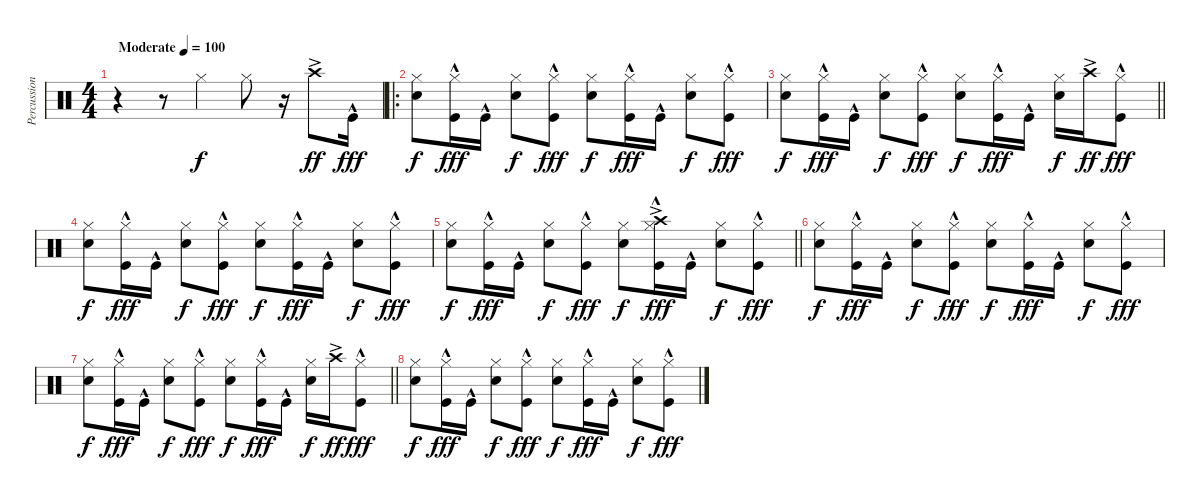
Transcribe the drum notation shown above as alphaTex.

\track ("Percussion" "Percussion") {instrument percussion}
\staff {score}
\articulation defaults
\ts (4 4)
\tempo (100 "Moderate")
\clef neutral
\ks c
r.4{dy f} r.8 "Hi-Hat (closed)".4 "Hi-Hat (closed)".8 r.16 "Crash high (hit)"{ac}.8{dy ff} "Kick (hit)"{hac}.16{dy fff} |
\ro
("Hi-Hat (closed)" "Electric Snare (hit)").8{dy f} ("Hi-Hat (closed)" "Kick (hit)"{hac}).16{dy fff} "Kick (hit)"{hac}.16 ("Hi-Hat (closed)" "Electric Snare (hit)").8{dy f} ("Hi-Hat (closed)" "Kick (hit)"{hac}).8{dy fff} ("Hi-Hat (closed)" "Electric Snare (hit)").8{dy f} ("Hi-Hat (closed)" "Kick (hit)"{hac}).16{dy fff} "Kick (hit)"{hac}.16 ("Hi-Hat (closed)" "Electric Snare (hit)").8{dy f} ("Hi-Hat (closed)" "Kick (hit)"{hac}).8{dy fff} |
\barLineRight lightlight
("Hi-Hat (closed)" "Electric Snare (hit)").8{dy f} ("Hi-Hat (closed)" "Kick (hit)"{hac}).16{dy fff} "Kick (hit)"{hac}.16 ("Hi-Hat (closed)" "Electric Snare (hit)").8{dy f} ("Hi-Hat (closed)" "Kick (hit)"{hac}).8{dy fff} ("Hi-Hat (closed)" "Electric Snare (hit)").8{dy f} ("Hi-Hat (closed)" "Kick (hit)"{hac}).16{dy fff} "Kick (hit)"{hac}.16 ("Hi-Hat (closed)" "Electric Snare (hit)").16{dy f} "Crash high (hit)"{ac}.16{dy ff} ("Hi-Hat (closed)" "Kick (hit)"{hac}).8{dy fff} |
("Hi-Hat (closed)" "Electric Snare (hit)").8{dy f} ("Hi-Hat (closed)" "Kick (hit)"{hac}).16{dy fff} "Kick (hit)"{hac}.16 ("Hi-Hat (closed)" "Electric Snare (hit)").8{dy f} ("Hi-Hat (closed)" "Kick (hit)"{hac}).8{dy fff} ("Hi-Hat (closed)" "Electric Snare (hit)").8{dy f} ("Hi-Hat (closed)" "Kick (hit)"{hac}).16{dy fff} "Kick (hit)"{hac}.16 ("Hi-Hat (closed)" "Electric Snare (hit)").8{dy f} ("Hi-Hat (closed)" "Kick (hit)"{hac}).8{dy fff} |
\barLineRight lightlight
("Hi-Hat (closed)" "Electric Snare (hit)").8{dy f} ("Hi-Hat (closed)" "Kick (hit)"{hac}).16{dy fff} "Kick (hit)"{hac}.16 ("Hi-Hat (closed)" "Electric Snare (hit)").8{dy f} ("Hi-Hat (closed)" "Kick (hit)"{hac}).8{dy fff} ("Hi-Hat (closed)" "Electric Snare (hit)").8{dy f} ("Hi-Hat (closed)" "Crash high (hit)"{ac} "Kick (hit)"{hac}).16{dy fff} "Kick (hit)"{hac}.16 ("Hi-Hat (closed)" "Electric Snare (hit)").8{dy f} ("Hi-Hat (closed)" "Kick (hit)"{hac}).8{dy fff} |
("Hi-Hat (closed)" "Electric Snare (hit)").8{dy f} ("Hi-Hat (closed)" "Kick (hit)"{hac}).16{dy fff} "Kick (hit)"{hac}.16 ("Hi-Hat (closed)" "Electric Snare (hit)").8{dy f} ("Hi-Hat (closed)" "Kick (hit)"{hac}).8{dy fff} ("Hi-Hat (closed)" "Electric Snare (hit)").8{dy f} ("Hi-Hat (closed)" "Kick (hit)"{hac}).16{dy fff} "Kick (hit)"{hac}.16 ("Hi-Hat (closed)" "Electric Snare (hit)").8{dy f} ("Hi-Hat (closed)" "Kick (hit)"{hac}).8{dy fff} |
\barLineRight lightlight
("Hi-Hat (closed)" "Electric Snare (hit)").8{dy f} ("Hi-Hat (closed)" "Kick (hit)"{hac}).16{dy fff} "Kick (hit)"{hac}.16 ("Hi-Hat (closed)" "Electric Snare (hit)").8{dy f} ("Hi-Hat (closed)" "Kick (hit)"{hac}).8{dy fff} ("Hi-Hat (closed)" "Electric Snare (hit)").8{dy f} ("Hi-Hat (closed)" "Kick (hit)"{hac}).16{dy fff} "Kick (hit)"{hac}.16 ("Hi-Hat (closed)" "Electric Snare (hit)").16{dy f} "Crash high (hit)"{ac}.16{dy ff} ("Hi-Hat (closed)" "Kick (hit)"{hac}).8{dy fff} |
("Hi-Hat (closed)" "Electric Snare (hit)").8{dy f} ("Hi-Hat (closed)" "Kick (hit)"{hac}).16{dy fff} "Kick (hit)"{hac}.16 ("Hi-Hat (closed)" "Electric Snare (hit)").8{dy f} ("Hi-Hat (closed)" "Kick (hit)"{hac}).8{dy fff} ("Hi-Hat (closed)" "Electric Snare (hit)").8{dy f} ("Hi-Hat (closed)" "Kick (hit)"{hac}).16{dy fff} "Kick (hit)"{hac}.16 ("Hi-Hat (closed)" "Electric Snare (hit)").8{dy f} ("Hi-Hat (closed)" "Kick (hit)"{hac}).8{dy fff}
